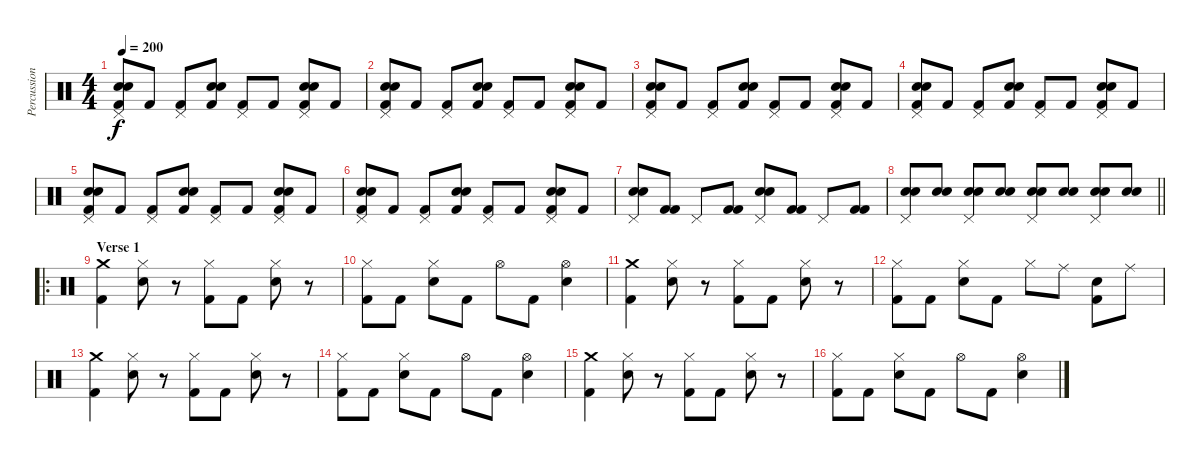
\track ("Percussion" "Percussion") {instrument percussion}
\staff {score}
\articulation defaults
\ts (4 4)
\tempo 200
\clef neutral
\ks c
("Pedal Hi-Hat (hit)" "Snare (hit) 2" "Electric Snare (hit)" "Kick (hit) 2").8{dy f} "Kick (hit) 2".8 ("Pedal Hi-Hat (hit)" "Kick (hit) 2").8 ("Snare (hit) 2" "Electric Snare (hit)" "Kick (hit) 2").8 ("Pedal Hi-Hat (hit)" "Kick (hit) 2").8 "Kick (hit) 2".8 ("Pedal Hi-Hat (hit)" "Snare (hit) 2" "Electric Snare (hit)" "Kick (hit) 2").8 "Kick (hit) 2".8 |
("Pedal Hi-Hat (hit)" "Snare (hit) 2" "Electric Snare (hit)" "Kick (hit) 2").8 "Kick (hit) 2".8 ("Pedal Hi-Hat (hit)" "Kick (hit) 2").8 ("Snare (hit) 2" "Electric Snare (hit)" "Kick (hit) 2").8 ("Pedal Hi-Hat (hit)" "Kick (hit) 2").8 "Kick (hit) 2".8 ("Pedal Hi-Hat (hit)" "Snare (hit) 2" "Electric Snare (hit)" "Kick (hit) 2").8 "Kick (hit) 2".8 |
("Pedal Hi-Hat (hit)" "Snare (hit) 2" "Electric Snare (hit)" "Kick (hit) 2").8 "Kick (hit) 2".8 ("Pedal Hi-Hat (hit)" "Kick (hit) 2").8 ("Snare (hit) 2" "Electric Snare (hit)" "Kick (hit) 2").8 ("Pedal Hi-Hat (hit)" "Kick (hit) 2").8 "Kick (hit) 2".8 ("Pedal Hi-Hat (hit)" "Snare (hit) 2" "Electric Snare (hit)" "Kick (hit) 2").8 "Kick (hit) 2".8 |
("Pedal Hi-Hat (hit)" "Snare (hit) 2" "Electric Snare (hit)" "Kick (hit) 2").8 "Kick (hit) 2".8 ("Pedal Hi-Hat (hit)" "Kick (hit) 2").8 ("Snare (hit) 2" "Electric Snare (hit)" "Kick (hit) 2").8 ("Pedal Hi-Hat (hit)" "Kick (hit) 2").8 "Kick (hit) 2".8 ("Pedal Hi-Hat (hit)" "Snare (hit) 2" "Electric Snare (hit)" "Kick (hit) 2").8 "Kick (hit) 2".8 |
("Pedal Hi-Hat (hit)" "Snare (hit) 2" "Electric Snare (hit)" "Kick (hit) 2").8 "Kick (hit) 2".8 ("Pedal Hi-Hat (hit)" "Kick (hit) 2").8 ("Snare (hit) 2" "Electric Snare (hit)" "Kick (hit) 2").8 ("Pedal Hi-Hat (hit)" "Kick (hit) 2").8 "Kick (hit) 2".8 ("Pedal Hi-Hat (hit)" "Snare (hit) 2" "Electric Snare (hit)" "Kick (hit) 2").8 "Kick (hit) 2".8 |
("Pedal Hi-Hat (hit)" "Snare (hit) 2" "Electric Snare (hit)" "Kick (hit) 2").8 "Kick (hit) 2".8 ("Pedal Hi-Hat (hit)" "Kick (hit) 2").8 ("Snare (hit) 2" "Electric Snare (hit)" "Kick (hit) 2").8 ("Pedal Hi-Hat (hit)" "Kick (hit) 2").8 "Kick (hit) 2".8 ("Pedal Hi-Hat (hit)" "Snare (hit) 2" "Electric Snare (hit)" "Kick (hit) 2").8 "Kick (hit) 2".8 |
("Pedal Hi-Hat (hit)" "Snare (hit) 2" "Electric Snare (hit)").8 ("Kick (hit) 2" "Kick (hit) 2").8 "Pedal Hi-Hat (hit)".8 ("Kick (hit) 2" "Kick (hit) 2").8 ("Pedal Hi-Hat (hit)" "Snare (hit) 2" "Electric Snare (hit)").8 ("Kick (hit) 2" "Kick (hit) 2").8 "Pedal Hi-Hat (hit)".8 ("Kick (hit) 2" "Kick (hit) 2").8 |
\barLineRight lightlight
("Pedal Hi-Hat (hit)" "Snare (hit) 2" "Snare (hit) 2").8 ("Snare (hit) 2" "Snare (hit) 2").8 ("Pedal Hi-Hat (hit)" "Snare (hit) 2" "Snare (hit) 2").8 ("Snare (hit) 2" "Snare (hit) 2").8 ("Pedal Hi-Hat (hit)" "Snare (hit) 2" "Snare (hit) 2").8 ("Snare (hit) 2" "Snare (hit) 2").8 ("Pedal Hi-Hat (hit)" "Snare (hit) 2" "Snare (hit) 2").8 ("Snare (hit) 2" "Snare (hit) 2").8 |
\ro
\section ("" "Verse 1")
("Crash medium (hit)" "Kick (hit) 2").4 ("Hi-Hat (closed)" "Snare (hit) 2").8 r.8 ("Hi-Hat (closed)" "Kick (hit) 2").8 "Kick (hit) 2".8 ("Hi-Hat (closed)" "Snare (hit) 2").8 r.8 |
("Hi-Hat (closed)" "Kick (hit) 2").8 "Kick (hit) 2".8 ("Hi-Hat (closed)" "Snare (hit) 2").8 "Kick (hit) 2".8 "Hi-Hat (open)".8 "Kick (hit) 2".8 ("Hi-Hat (open)" "Snare (hit) 2").4 |
("Crash medium (hit)" "Kick (hit) 2").4 ("Hi-Hat (closed)" "Snare (hit) 2").8 r.8 ("Hi-Hat (closed)" "Kick (hit) 2").8 "Kick (hit) 2".8 ("Hi-Hat (closed)" "Snare (hit) 2").8 r.8 |
("Hi-Hat (closed)" "Kick (hit) 2").8 "Kick (hit) 2".8 ("Hi-Hat (closed)" "Snare (hit) 2").8 "Kick (hit) 2".8 "Hi-Hat (closed)".8 "Ride (middle)".8 ("Snare (hit) 2" "Kick (hit) 2").8 "Ride (middle)".8 |
("Crash medium (hit)" "Kick (hit) 2").4 ("Hi-Hat (closed)" "Snare (hit) 2").8 r.8 ("Hi-Hat (closed)" "Kick (hit) 2").8 "Kick (hit) 2".8 ("Hi-Hat (closed)" "Snare (hit) 2").8 r.8 |
("Hi-Hat (closed)" "Kick (hit) 2").8 "Kick (hit) 2".8 ("Hi-Hat (closed)" "Snare (hit) 2").8 "Kick (hit) 2".8 "Hi-Hat (open)".8 "Kick (hit) 2".8 ("Hi-Hat (open)" "Snare (hit) 2").4 |
("Crash medium (hit)" "Kick (hit) 2").4 ("Hi-Hat (closed)" "Snare (hit) 2").8 r.8 ("Hi-Hat (closed)" "Kick (hit) 2").8 "Kick (hit) 2".8 ("Hi-Hat (closed)" "Snare (hit) 2").8 r.8 |
("Hi-Hat (closed)" "Kick (hit) 2").8 "Kick (hit) 2".8 ("Hi-Hat (closed)" "Snare (hit) 2").8 "Kick (hit) 2".8 "Hi-Hat (open)".8 "Kick (hit) 2".8 ("Hi-Hat (open)" "Snare (hit) 2").4
